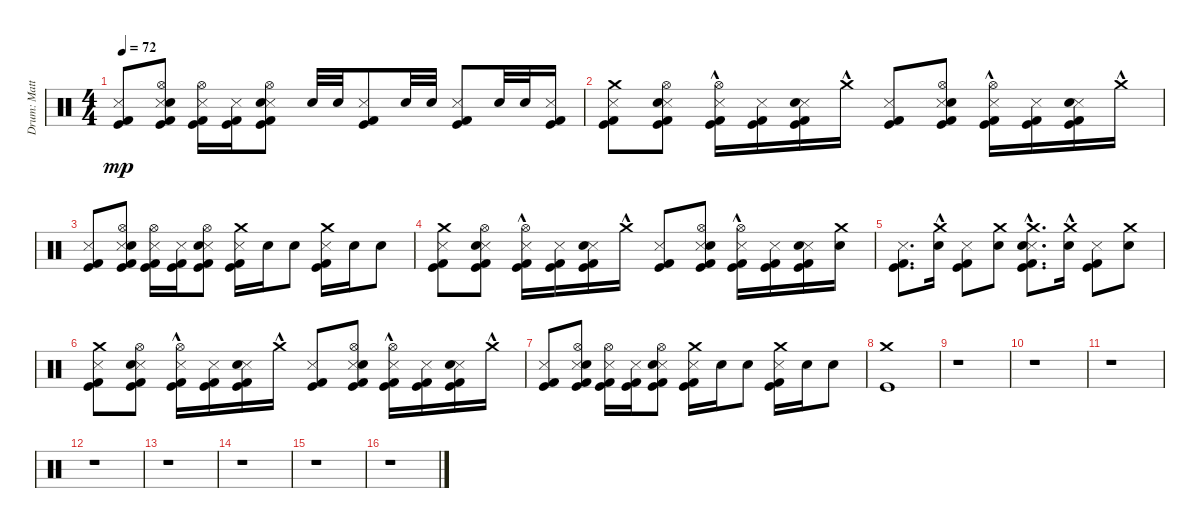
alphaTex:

\track ("Drum: Matt" "Drum: Matt") {instrument percussion}
\staff {score}
\articulation defaults
\ts (4 4)
\tempo 72
\clef neutral
\ks c
("Metronome (hit)" "Kick (hit)" "Kick (hit) 2").8{dy mp} ("Hi-Hat (open)" "Metronome (hit)" "Kick (hit)" "Kick (hit) 2" "Snare (hit) 2").8 ("Hi-Hat (open)" "Metronome (hit)" "Kick (hit)" "Kick (hit) 2").16 ("Metronome (hit)" "Kick (hit)" "Kick (hit) 2").16 ("Hi-Hat (open)" "Metronome (hit)" "Kick (hit)" "Kick (hit) 2" "Snare (hit) 2").8 "Snare (hit) 2".32 "Snare (hit) 2".32 ("Metronome (hit)" "Kick (hit)" "Kick (hit) 2").8 "Snare (hit) 2".32 "Snare (hit) 2".32 ("Metronome (hit)" "Kick (hit)" "Kick (hit) 2").8 "Snare (hit) 2".32 "Snare (hit) 2".32 ("Metronome (hit)" "Kick (hit)" "Kick (hit) 2").16 |
("Crash medium (hit)" "Metronome (hit)" "Kick (hit)" "Kick (hit) 2").8 ("Hi-Hat (open)" "Metronome (hit)" "Kick (hit)" "Kick (hit) 2" "Snare (hit) 2").8 ("Hi-Hat (open)"{hac} "Metronome (hit)" "Kick (hit)" "Kick (hit) 2").16 ("Metronome (hit)" "Kick (hit)" "Kick (hit) 2").16 ("Metronome (hit)" "Kick (hit)" "Kick (hit) 2" "Snare (hit) 2").16 "Crash medium (hit)"{hac}.16 ("Metronome (hit)" "Kick (hit)" "Kick (hit) 2").8 ("Hi-Hat (open)" "Metronome (hit)" "Kick (hit)" "Kick (hit) 2" "Snare (hit) 2").8 ("Hi-Hat (open)"{hac} "Metronome (hit)" "Kick (hit)" "Kick (hit) 2").16 ("Metronome (hit)" "Kick (hit)" "Kick (hit) 2").16 ("Metronome (hit)" "Kick (hit)" "Kick (hit) 2" "Snare (hit) 2").16 "Crash medium (hit)"{hac}.16 |
("Metronome (hit)" "Kick (hit)" "Kick (hit) 2").8 ("Hi-Hat (open)" "Metronome (hit)" "Kick (hit)" "Kick (hit) 2" "Snare (hit) 2").8 ("Hi-Hat (open)" "Metronome (hit)" "Kick (hit)" "Kick (hit) 2").16 ("Metronome (hit)" "Kick (hit)" "Kick (hit) 2").16 ("Hi-Hat (open)" "Metronome (hit)" "Kick (hit)" "Kick (hit) 2" "Snare (hit) 2").8 ("Crash medium (hit)" "Metronome (hit)" "Kick (hit)" "Kick (hit) 2").16 "Snare (hit) 2".16 "Snare (hit) 2".8 ("Crash medium (hit)" "Metronome (hit)" "Kick (hit)" "Kick (hit) 2").16 "Snare (hit) 2".16 "Snare (hit) 2".8 |
("Crash medium (hit)" "Metronome (hit)" "Kick (hit)" "Kick (hit) 2").8 ("Hi-Hat (open)" "Metronome (hit)" "Kick (hit)" "Kick (hit) 2" "Snare (hit) 2").8 ("Hi-Hat (open)"{hac} "Metronome (hit)" "Kick (hit)" "Kick (hit) 2").16 ("Metronome (hit)" "Kick (hit)" "Kick (hit) 2").16 ("Metronome (hit)" "Kick (hit)" "Kick (hit) 2" "Snare (hit) 2").16 "Crash medium (hit)"{hac}.16 ("Metronome (hit)" "Kick (hit)" "Kick (hit) 2").8 ("Hi-Hat (open)" "Metronome (hit)" "Kick (hit)" "Kick (hit) 2" "Snare (hit) 2").8 ("Hi-Hat (open)"{hac} "Metronome (hit)" "Kick (hit)" "Kick (hit) 2").16 ("Metronome (hit)" "Kick (hit)" "Kick (hit) 2").16 ("Metronome (hit)" "Kick (hit)" "Kick (hit) 2" "Snare (hit) 2").16 ("Snare (hit) 2" "Crash medium (hit)").16 |
("Metronome (hit)" "Kick (hit)" "Kick (hit) 2").8{d} ("Snare (hit) 2"{hac} "Crash medium (hit)"{hac}).16 ("Metronome (hit)" "Kick (hit)" "Kick (hit) 2").8 ("Snare (hit) 2" "Crash medium (hit)").8 ("Metronome (hit)" "Kick (hit)" "Kick (hit) 2" "Snare (hit) 2"{hac} "Crash medium (hit)"{hac}).8{d} ("Snare (hit) 2"{hac} "Crash medium (hit)"{hac}).16 ("Metronome (hit)" "Kick (hit)" "Kick (hit) 2").8 ("Snare (hit) 2" "Crash medium (hit)").8 |
("Crash medium (hit)" "Metronome (hit)" "Kick (hit)" "Kick (hit) 2").8 ("Hi-Hat (open)" "Metronome (hit)" "Kick (hit)" "Kick (hit) 2" "Snare (hit) 2").8 ("Hi-Hat (open)"{hac} "Metronome (hit)" "Kick (hit)" "Kick (hit) 2").16 ("Metronome (hit)" "Kick (hit)" "Kick (hit) 2").16 ("Metronome (hit)" "Kick (hit)" "Kick (hit) 2" "Snare (hit) 2").16 "Crash medium (hit)"{hac}.16 ("Metronome (hit)" "Kick (hit)" "Kick (hit) 2").8 ("Hi-Hat (open)" "Metronome (hit)" "Kick (hit)" "Kick (hit) 2" "Snare (hit) 2").8 ("Hi-Hat (open)"{hac} "Metronome (hit)" "Kick (hit)" "Kick (hit) 2").16 ("Metronome (hit)" "Kick (hit)" "Kick (hit) 2").16 ("Metronome (hit)" "Kick (hit)" "Kick (hit) 2" "Snare (hit) 2").16 "Crash medium (hit)"{hac}.16 |
("Metronome (hit)" "Kick (hit)" "Kick (hit) 2").8 ("Hi-Hat (open)" "Metronome (hit)" "Kick (hit)" "Kick (hit) 2" "Snare (hit) 2").8 ("Hi-Hat (open)" "Metronome (hit)" "Kick (hit)" "Kick (hit) 2").16 ("Metronome (hit)" "Kick (hit)" "Kick (hit) 2").16 ("Hi-Hat (open)" "Metronome (hit)" "Kick (hit)" "Kick (hit) 2" "Snare (hit) 2").8 ("Crash medium (hit)" "Metronome (hit)" "Kick (hit)" "Kick (hit) 2").16 "Snare (hit) 2".16 "Snare (hit) 2".8 ("Crash medium (hit)" "Metronome (hit)" "Kick (hit)" "Kick (hit) 2").16 "Snare (hit) 2".16 "Snare (hit) 2".8 |
("Kick (hit)" "Crash medium (hit)").1 |
r.1 |
r.1 |
r.1 |
r.1 |
r.1 |
r.1 |
r.1 |
r.1
